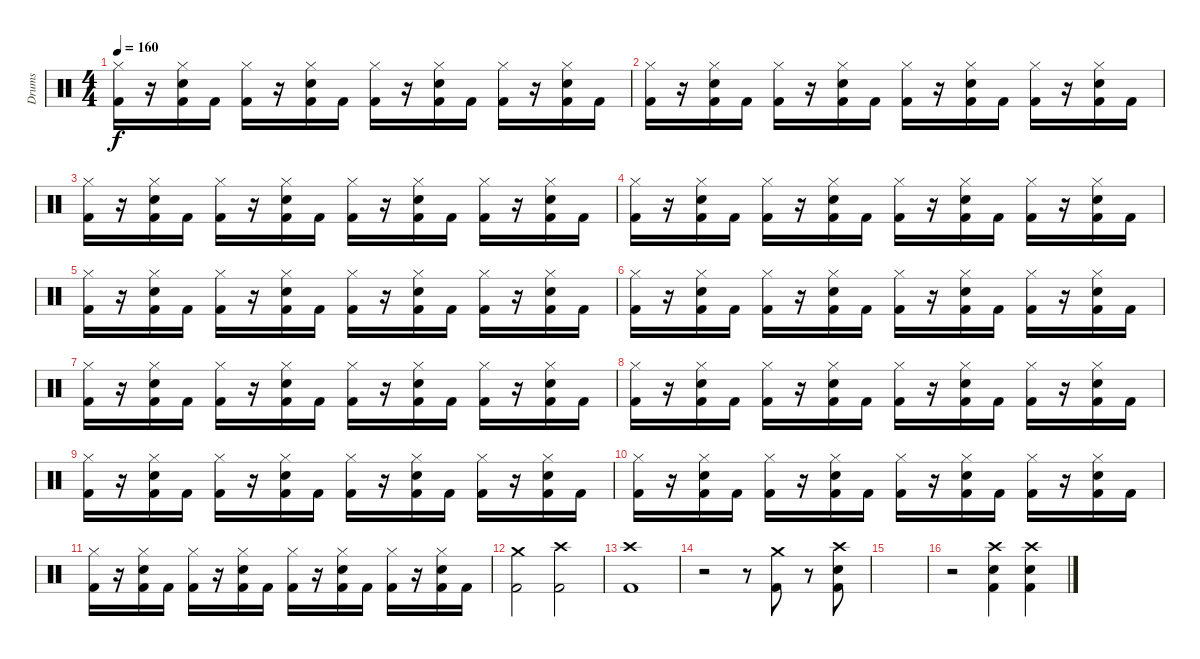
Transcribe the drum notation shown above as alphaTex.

\track ("Drums" "Drums") {instrument percussion}
\staff {score}
\articulation defaults
\ts (4 4)
\tempo 160
\clef neutral
\ks c
("Kick (hit) 2" "Hi-Hat (closed)").16{dy f} r.16 ("Kick (hit) 2" "Hi-Hat (closed)" "Electric Snare (hit)").16 "Kick (hit) 2".16 ("Kick (hit) 2" "Hi-Hat (closed)").16 r.16 ("Kick (hit) 2" "Hi-Hat (closed)" "Electric Snare (hit)").16 "Kick (hit) 2".16 ("Kick (hit) 2" "Hi-Hat (closed)").16 r.16 ("Kick (hit) 2" "Hi-Hat (closed)" "Electric Snare (hit)").16 "Kick (hit) 2".16 ("Kick (hit) 2" "Hi-Hat (closed)").16 r.16 ("Kick (hit) 2" "Hi-Hat (closed)" "Electric Snare (hit)").16 "Kick (hit) 2".16 |
("Kick (hit) 2" "Hi-Hat (closed)").16 r.16 ("Kick (hit) 2" "Hi-Hat (closed)" "Electric Snare (hit)").16 "Kick (hit) 2".16 ("Kick (hit) 2" "Hi-Hat (closed)").16 r.16 ("Kick (hit) 2" "Hi-Hat (closed)" "Electric Snare (hit)").16 "Kick (hit) 2".16 ("Kick (hit) 2" "Hi-Hat (closed)").16 r.16 ("Kick (hit) 2" "Hi-Hat (closed)" "Electric Snare (hit)").16 "Kick (hit) 2".16 ("Kick (hit) 2" "Hi-Hat (closed)").16 r.16 ("Kick (hit) 2" "Hi-Hat (closed)" "Electric Snare (hit)").16 "Kick (hit) 2".16 |
("Kick (hit) 2" "Hi-Hat (closed)").16 r.16 ("Kick (hit) 2" "Hi-Hat (closed)" "Electric Snare (hit)").16 "Kick (hit) 2".16 ("Kick (hit) 2" "Hi-Hat (closed)").16 r.16 ("Kick (hit) 2" "Hi-Hat (closed)" "Electric Snare (hit)").16 "Kick (hit) 2".16 ("Kick (hit) 2" "Hi-Hat (closed)").16 r.16 ("Kick (hit) 2" "Hi-Hat (closed)" "Electric Snare (hit)").16 "Kick (hit) 2".16 ("Kick (hit) 2" "Hi-Hat (closed)").16 r.16 ("Kick (hit) 2" "Hi-Hat (closed)" "Electric Snare (hit)").16 "Kick (hit) 2".16 |
("Kick (hit) 2" "Hi-Hat (closed)").16 r.16 ("Kick (hit) 2" "Hi-Hat (closed)" "Electric Snare (hit)").16 "Kick (hit) 2".16 ("Kick (hit) 2" "Hi-Hat (closed)").16 r.16 ("Kick (hit) 2" "Hi-Hat (closed)" "Electric Snare (hit)").16 "Kick (hit) 2".16 ("Kick (hit) 2" "Hi-Hat (closed)").16 r.16 ("Kick (hit) 2" "Hi-Hat (closed)" "Electric Snare (hit)").16 "Kick (hit) 2".16 ("Kick (hit) 2" "Hi-Hat (closed)").16 r.16 ("Kick (hit) 2" "Hi-Hat (closed)" "Electric Snare (hit)").16 "Kick (hit) 2".16 |
("Kick (hit) 2" "Hi-Hat (closed)").16 r.16 ("Kick (hit) 2" "Hi-Hat (closed)" "Electric Snare (hit)").16 "Kick (hit) 2".16 ("Kick (hit) 2" "Hi-Hat (closed)").16 r.16 ("Kick (hit) 2" "Hi-Hat (closed)" "Electric Snare (hit)").16 "Kick (hit) 2".16 ("Kick (hit) 2" "Hi-Hat (closed)").16 r.16 ("Kick (hit) 2" "Hi-Hat (closed)" "Electric Snare (hit)").16 "Kick (hit) 2".16 ("Kick (hit) 2" "Hi-Hat (closed)").16 r.16 ("Kick (hit) 2" "Hi-Hat (closed)" "Electric Snare (hit)").16 "Kick (hit) 2".16 |
("Kick (hit) 2" "Hi-Hat (closed)").16 r.16 ("Kick (hit) 2" "Hi-Hat (closed)" "Electric Snare (hit)").16 "Kick (hit) 2".16 ("Kick (hit) 2" "Hi-Hat (closed)").16 r.16 ("Kick (hit) 2" "Hi-Hat (closed)" "Electric Snare (hit)").16 "Kick (hit) 2".16 ("Kick (hit) 2" "Hi-Hat (closed)").16 r.16 ("Kick (hit) 2" "Hi-Hat (closed)" "Electric Snare (hit)").16 "Kick (hit) 2".16 ("Kick (hit) 2" "Hi-Hat (closed)").16 r.16 ("Kick (hit) 2" "Hi-Hat (closed)" "Electric Snare (hit)").16 "Kick (hit) 2".16 |
("Kick (hit) 2" "Hi-Hat (closed)").16 r.16 ("Kick (hit) 2" "Hi-Hat (closed)" "Electric Snare (hit)").16 "Kick (hit) 2".16 ("Kick (hit) 2" "Hi-Hat (closed)").16 r.16 ("Kick (hit) 2" "Hi-Hat (closed)" "Electric Snare (hit)").16 "Kick (hit) 2".16 ("Kick (hit) 2" "Hi-Hat (closed)").16 r.16 ("Kick (hit) 2" "Hi-Hat (closed)" "Electric Snare (hit)").16 "Kick (hit) 2".16 ("Kick (hit) 2" "Hi-Hat (closed)").16 r.16 ("Kick (hit) 2" "Hi-Hat (closed)" "Electric Snare (hit)").16 "Kick (hit) 2".16 |
("Kick (hit) 2" "Hi-Hat (closed)").16 r.16 ("Kick (hit) 2" "Hi-Hat (closed)" "Electric Snare (hit)").16 "Kick (hit) 2".16 ("Kick (hit) 2" "Hi-Hat (closed)").16 r.16 ("Kick (hit) 2" "Hi-Hat (closed)" "Electric Snare (hit)").16 "Kick (hit) 2".16 ("Kick (hit) 2" "Hi-Hat (closed)").16 r.16 ("Kick (hit) 2" "Hi-Hat (closed)" "Electric Snare (hit)").16 "Kick (hit) 2".16 ("Kick (hit) 2" "Hi-Hat (closed)").16 r.16 ("Kick (hit) 2" "Hi-Hat (closed)" "Electric Snare (hit)").16 "Kick (hit) 2".16 |
("Kick (hit) 2" "Hi-Hat (closed)").16 r.16 ("Kick (hit) 2" "Hi-Hat (closed)" "Electric Snare (hit)").16 "Kick (hit) 2".16 ("Kick (hit) 2" "Hi-Hat (closed)").16 r.16 ("Kick (hit) 2" "Hi-Hat (closed)" "Electric Snare (hit)").16 "Kick (hit) 2".16 ("Kick (hit) 2" "Hi-Hat (closed)").16 r.16 ("Kick (hit) 2" "Hi-Hat (closed)" "Electric Snare (hit)").16 "Kick (hit) 2".16 ("Kick (hit) 2" "Hi-Hat (closed)").16 r.16 ("Kick (hit) 2" "Hi-Hat (closed)" "Electric Snare (hit)").16 "Kick (hit) 2".16 |
("Kick (hit) 2" "Hi-Hat (closed)").16 r.16 ("Kick (hit) 2" "Hi-Hat (closed)" "Electric Snare (hit)").16 "Kick (hit) 2".16 ("Kick (hit) 2" "Hi-Hat (closed)").16 r.16 ("Kick (hit) 2" "Hi-Hat (closed)" "Electric Snare (hit)").16 "Kick (hit) 2".16 ("Kick (hit) 2" "Hi-Hat (closed)").16 r.16 ("Kick (hit) 2" "Hi-Hat (closed)" "Electric Snare (hit)").16 "Kick (hit) 2".16 ("Kick (hit) 2" "Hi-Hat (closed)").16 r.16 ("Kick (hit) 2" "Hi-Hat (closed)" "Electric Snare (hit)").16 "Kick (hit) 2".16 |
("Kick (hit) 2" "Hi-Hat (closed)").16 r.16 ("Kick (hit) 2" "Hi-Hat (closed)" "Electric Snare (hit)").16 "Kick (hit) 2".16 ("Kick (hit) 2" "Hi-Hat (closed)").16 r.16 ("Kick (hit) 2" "Hi-Hat (closed)" "Electric Snare (hit)").16 "Kick (hit) 2".16 ("Kick (hit) 2" "Hi-Hat (closed)").16 r.16 ("Kick (hit) 2" "Hi-Hat (closed)" "Electric Snare (hit)").16 "Kick (hit) 2".16 ("Kick (hit) 2" "Hi-Hat (closed)").16 r.16 ("Kick (hit) 2" "Hi-Hat (closed)" "Electric Snare (hit)").16 "Kick (hit) 2".16 |
("Kick (hit) 2" "Crash medium (hit)").2 ("Kick (hit) 2" "Crash high (hit)").2 |
("Crash high (hit)" "Kick (hit) 2").1 |
r.2 r.8 ("Crash medium (hit)" "Kick (hit) 2").8 r.8 ("Crash high (hit)" "Electric Snare (hit)" "Kick (hit) 2").8 |
|
r.2 ("Crash high (hit)" "Electric Snare (hit)" "Kick (hit) 2").4 ("Crash high (hit)" "Electric Snare (hit)" "Kick (hit) 2").4
